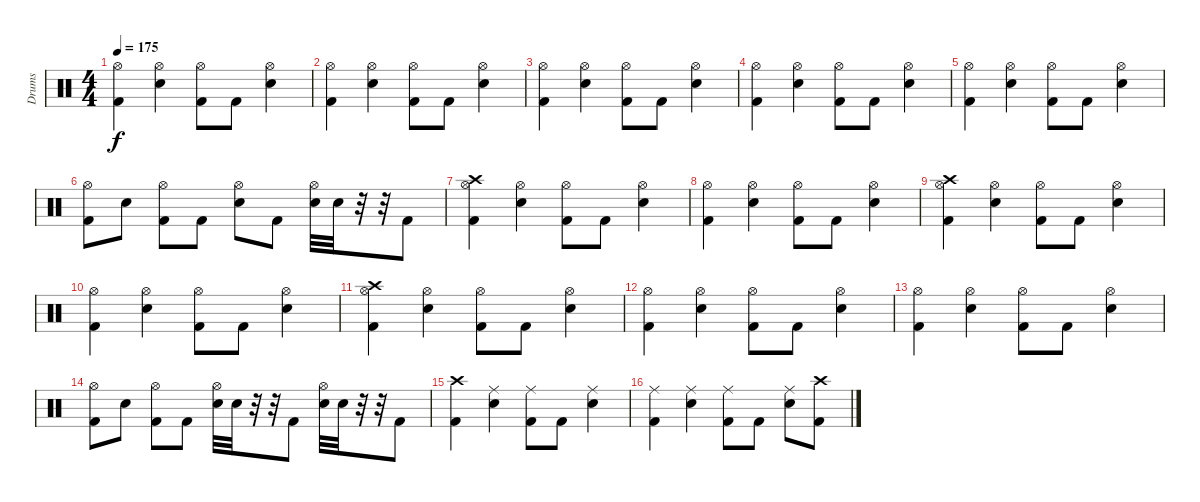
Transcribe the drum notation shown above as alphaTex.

\track ("Drums" "Drums") {instrument percussion}
\staff {score}
\articulation defaults
\ts (4 4)
\tempo 175
\clef neutral
\ks c
("Hi-Hat (open)" "Kick (hit) 2").4{dy f} ("Hi-Hat (open)" "Electric Snare (hit)").4 ("Hi-Hat (open)" "Kick (hit) 2").8 "Kick (hit) 2".8 ("Hi-Hat (open)" "Electric Snare (hit)").4 |
("Hi-Hat (open)" "Kick (hit) 2").4 ("Hi-Hat (open)" "Electric Snare (hit)").4 ("Hi-Hat (open)" "Kick (hit) 2").8 "Kick (hit) 2".8 ("Hi-Hat (open)" "Electric Snare (hit)").4 |
("Hi-Hat (open)" "Kick (hit) 2").4 ("Hi-Hat (open)" "Electric Snare (hit)").4 ("Hi-Hat (open)" "Kick (hit) 2").8 "Kick (hit) 2".8 ("Hi-Hat (open)" "Electric Snare (hit)").4 |
("Hi-Hat (open)" "Kick (hit) 2").4 ("Hi-Hat (open)" "Electric Snare (hit)").4 ("Hi-Hat (open)" "Kick (hit) 2").8 "Kick (hit) 2".8 ("Hi-Hat (open)" "Electric Snare (hit)").4 |
("Hi-Hat (open)" "Kick (hit) 2").4 ("Hi-Hat (open)" "Electric Snare (hit)").4 ("Hi-Hat (open)" "Kick (hit) 2").8 "Kick (hit) 2".8 ("Hi-Hat (open)" "Electric Snare (hit)").4 |
("Hi-Hat (open)" "Kick (hit) 2").8 "Electric Snare (hit)".8 ("Hi-Hat (open)" "Kick (hit) 2").8 "Kick (hit) 2".8 ("Hi-Hat (open)" "Electric Snare (hit)").8 "Kick (hit) 2".8 ("Hi-Hat (open)" "Electric Snare (hit)").32 "Electric Snare (hit)".32 r.32 r.32 "Kick (hit) 2".8 |
("Crash high (hit)" "Hi-Hat (open)" "Kick (hit) 2").4 ("Hi-Hat (open)" "Electric Snare (hit)").4 ("Hi-Hat (open)" "Kick (hit) 2").8 "Kick (hit) 2".8 ("Hi-Hat (open)" "Electric Snare (hit)").4 |
("Hi-Hat (open)" "Kick (hit) 2").4 ("Hi-Hat (open)" "Electric Snare (hit)").4 ("Hi-Hat (open)" "Kick (hit) 2").8 "Kick (hit) 2".8 ("Hi-Hat (open)" "Electric Snare (hit)").4 |
("Crash high (hit)" "Hi-Hat (open)" "Kick (hit) 2").4 ("Hi-Hat (open)" "Electric Snare (hit)").4 ("Hi-Hat (open)" "Kick (hit) 2").8 "Kick (hit) 2".8 ("Hi-Hat (open)" "Electric Snare (hit)").4 |
("Hi-Hat (open)" "Kick (hit) 2").4 ("Hi-Hat (open)" "Electric Snare (hit)").4 ("Hi-Hat (open)" "Kick (hit) 2").8 "Kick (hit) 2".8 ("Hi-Hat (open)" "Electric Snare (hit)").4 |
("Crash high (hit)" "Hi-Hat (open)" "Kick (hit) 2").4 ("Hi-Hat (open)" "Electric Snare (hit)").4 ("Hi-Hat (open)" "Kick (hit) 2").8 "Kick (hit) 2".8 ("Hi-Hat (open)" "Electric Snare (hit)").4 |
("Hi-Hat (open)" "Kick (hit) 2").4 ("Hi-Hat (open)" "Electric Snare (hit)").4 ("Hi-Hat (open)" "Kick (hit) 2").8 "Kick (hit) 2".8 ("Hi-Hat (open)" "Electric Snare (hit)").4 |
("Hi-Hat (open)" "Kick (hit) 2").4 ("Hi-Hat (open)" "Electric Snare (hit)").4 ("Hi-Hat (open)" "Kick (hit) 2").8 "Kick (hit) 2".8 ("Hi-Hat (open)" "Electric Snare (hit)").4 |
("Hi-Hat (open)" "Kick (hit) 2").8 "Electric Snare (hit)".8 ("Hi-Hat (open)" "Kick (hit) 2").8 "Kick (hit) 2".8 ("Hi-Hat (open)" "Electric Snare (hit)").32 "Electric Snare (hit)".32 r.32 r.32 "Kick (hit) 2".8 ("Hi-Hat (open)" "Electric Snare (hit)").32 "Electric Snare (hit)".32 r.32 r.32 "Kick (hit) 2".8 |
("Crash high (hit)" "Kick (hit) 2").4 ("Ride (middle)" "Electric Snare (hit)").4 ("Ride (middle)" "Kick (hit) 2").8 "Kick (hit) 2".8 ("Ride (middle)" "Electric Snare (hit)").4 |
("Ride (middle)" "Kick (hit) 2").4 ("Ride (middle)" "Electric Snare (hit)").4 ("Ride (middle)" "Kick (hit) 2").8 "Kick (hit) 2".8 ("Ride (middle)" "Electric Snare (hit)").8 ("Crash high (hit)" "Kick (hit) 2").8
